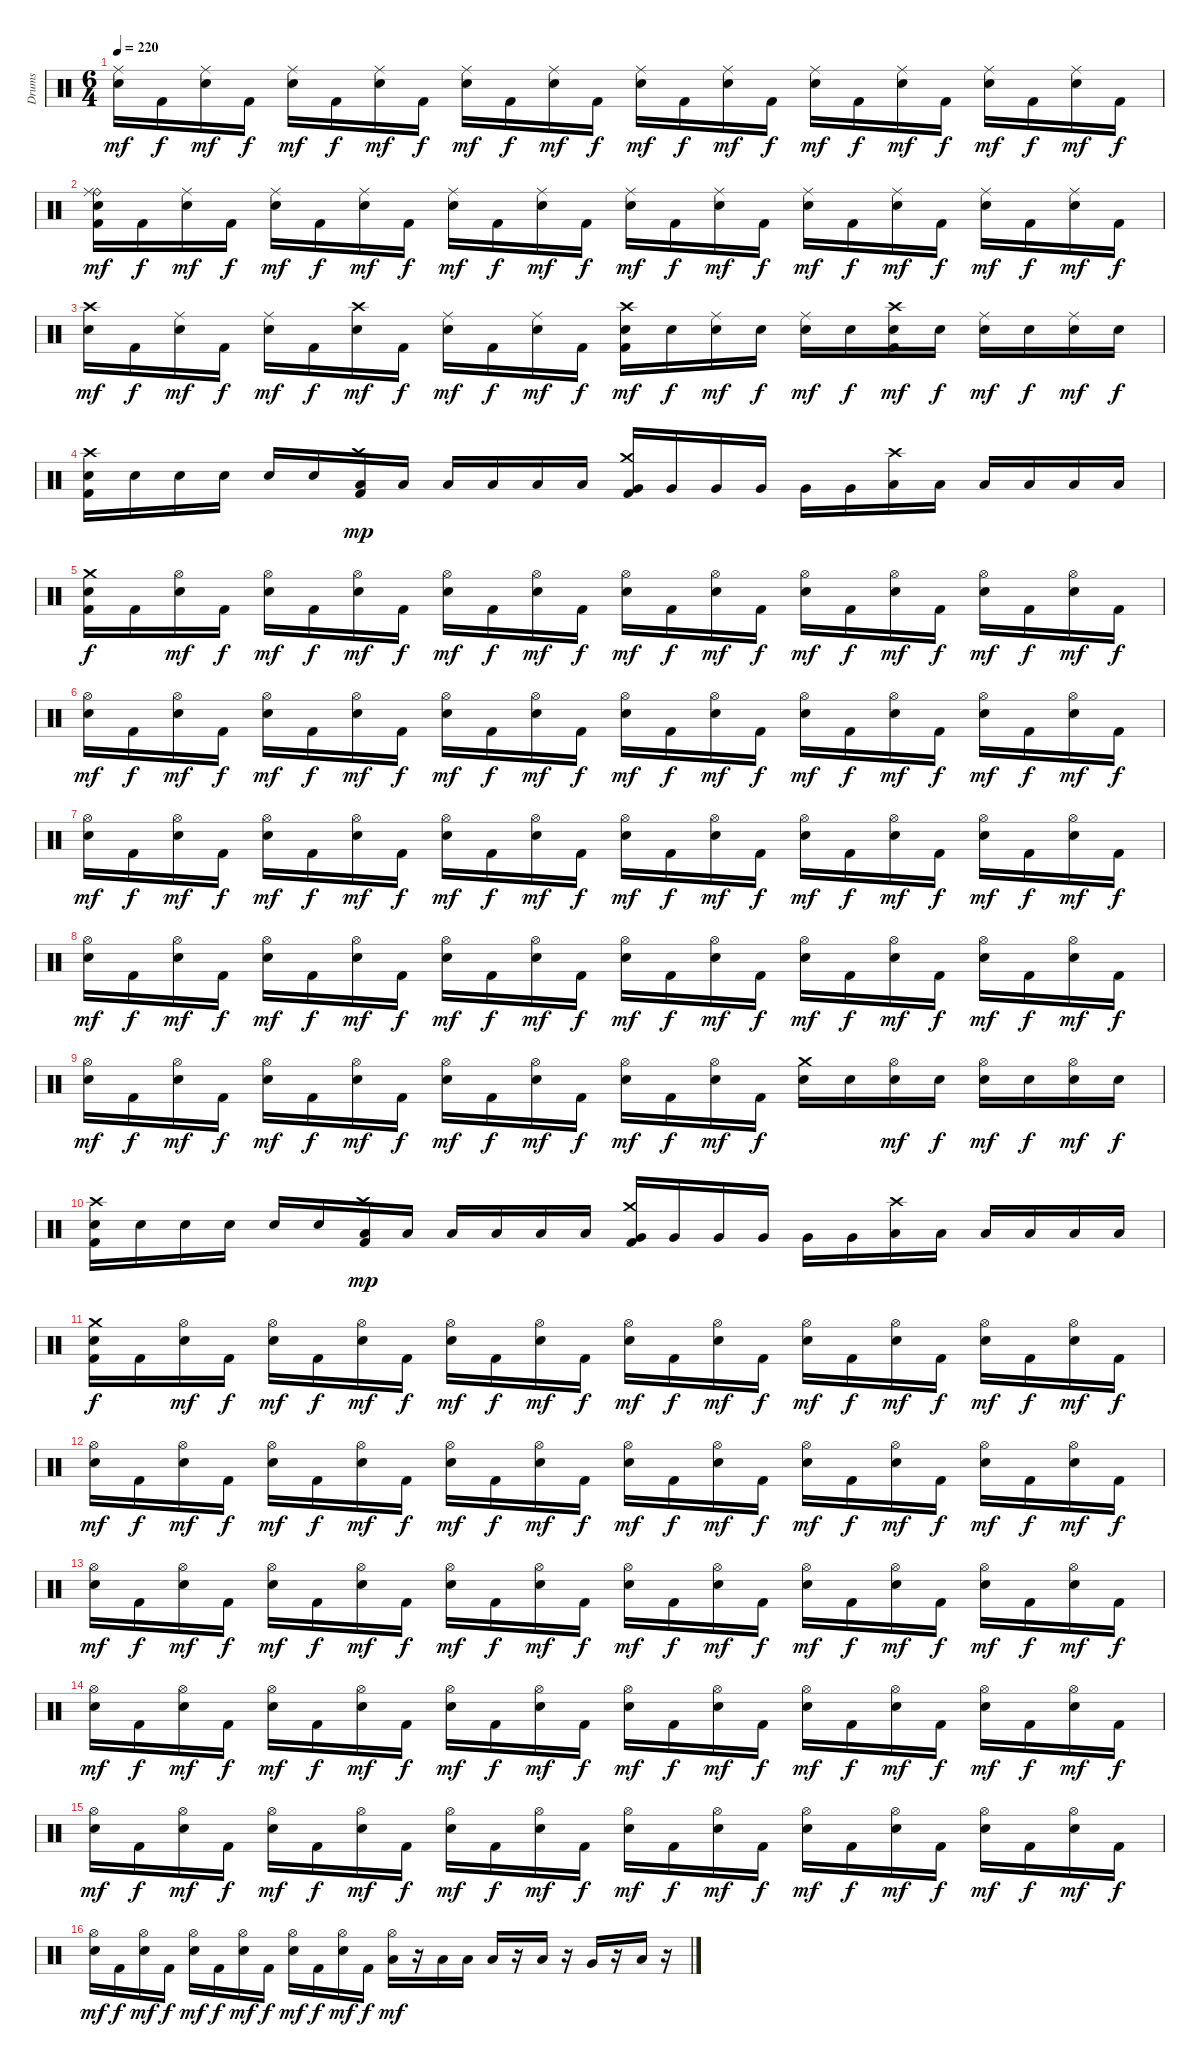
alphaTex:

\track ("Drums" "Drums") {instrument percussion}
\staff {score}
\articulation defaults
\ts (6 4)
\tempo 220
\clef neutral
\ks c
("Ride (middle)" "Electric Snare (hit)").16{dy mf} "Kick (hit) 2".16{dy f} ("Ride (middle)" "Electric Snare (hit)").16{dy mf} "Kick (hit) 2".16{dy f} ("Ride (middle)" "Electric Snare (hit)").16{dy mf} "Kick (hit) 2".16{dy f} ("Ride (middle)" "Electric Snare (hit)").16{dy mf} "Kick (hit) 2".16{dy f} ("Ride (middle)" "Electric Snare (hit)").16{dy mf} "Kick (hit) 2".16{dy f} ("Ride (middle)" "Electric Snare (hit)").16{dy mf} "Kick (hit) 2".16{dy f} ("Ride (middle)" "Electric Snare (hit)").16{dy mf} "Kick (hit) 2".16{dy f} ("Ride (middle)" "Electric Snare (hit)").16{dy mf} "Kick (hit) 2".16{dy f} ("Ride (middle)" "Electric Snare (hit)").16{dy mf} "Kick (hit) 2".16{dy f} ("Ride (middle)" "Electric Snare (hit)").16{dy mf} "Kick (hit) 2".16{dy f} ("Ride (middle)" "Electric Snare (hit)").16{dy mf} "Kick (hit) 2".16{dy f} ("Ride (middle)" "Electric Snare (hit)").16{dy mf} "Kick (hit) 2".16{dy f} |
("Ride (bell)" "Ride (middle)" "Electric Snare (hit)" "Kick (hit) 2").16{dy mf} "Kick (hit) 2".16{dy f} ("Ride (middle)" "Electric Snare (hit)").16{dy mf} "Kick (hit) 2".16{dy f} ("Ride (middle)" "Electric Snare (hit)").16{dy mf} "Kick (hit) 2".16{dy f} ("Ride (middle)" "Electric Snare (hit)").16{dy mf} "Kick (hit) 2".16{dy f} ("Ride (middle)" "Electric Snare (hit)").16{dy mf} "Kick (hit) 2".16{dy f} ("Ride (middle)" "Electric Snare (hit)").16{dy mf} "Kick (hit) 2".16{dy f} ("Ride (middle)" "Electric Snare (hit)").16{dy mf} "Kick (hit) 2".16{dy f} ("Ride (middle)" "Electric Snare (hit)").16{dy mf} "Kick (hit) 2".16{dy f} ("Ride (middle)" "Electric Snare (hit)").16{dy mf} "Kick (hit) 2".16{dy f} ("Ride (middle)" "Electric Snare (hit)").16{dy mf} "Kick (hit) 2".16{dy f} ("Ride (middle)" "Electric Snare (hit)").16{dy mf} "Kick (hit) 2".16{dy f} ("Ride (middle)" "Electric Snare (hit)").16{dy mf} "Kick (hit) 2".16{dy f} |
("Crash high (hit)" "Electric Snare (hit)").16{dy mf} "Kick (hit) 2".16{dy f} ("Ride (middle)" "Electric Snare (hit)").16{dy mf} "Kick (hit) 2".16{dy f} ("Ride (middle)" "Electric Snare (hit)").16{dy mf} "Kick (hit) 2".16{dy f} ("Crash high (hit)" "Electric Snare (hit)").16{dy mf} "Kick (hit) 2".16{dy f} ("Ride (middle)" "Electric Snare (hit)").16{dy mf} "Kick (hit) 2".16{dy f} ("Ride (middle)" "Electric Snare (hit)").16{dy mf} "Kick (hit) 2".16{dy f} ("Crash high (hit)" "Electric Snare (hit)" "Kick (hit) 2").16{dy mf} "Electric Snare (hit)".16{dy f} ("Ride (middle)" "Electric Snare (hit)").16{dy mf} "Electric Snare (hit)".16{dy f} ("Ride (middle)" "Electric Snare (hit)").16{dy mf} "Electric Snare (hit)".16{dy f} ("Crash high (hit)" "Electric Snare (hit)" "Kick (hit) 2").16{dy mf} "Electric Snare (hit)".16{dy f} ("Ride (middle)" "Electric Snare (hit)").16{dy mf} "Electric Snare (hit)".16{dy f} ("Ride (middle)" "Electric Snare (hit)").16{dy mf} "Electric Snare (hit)".16{dy f} |
("Crash high (hit)" "Electric Snare (hit)" "Kick (hit) 2").16 "Electric Snare (hit)".16 "Electric Snare (hit)".16 "Electric Snare (hit)".16 "Electric Snare (hit)".16 "Electric Snare (hit)".16 ("Crash high (hit)" "Low Tom (hit)" "Kick (hit) 2").16{dy mp} "Low Tom (hit)".16 "Low Tom (hit)".16 "Low Tom (hit)".16 "Low Tom (hit)".16 "Low Tom (hit)".16 ("Crash medium (hit)" "Very Low Tom (hit)" "Kick (hit) 2").16 "Very Low Tom (hit)".16 "Very Low Tom (hit)".16 "Very Low Tom (hit)".16 "Very Low Tom (hit)".16 "Very Low Tom (hit)".16 ("Crash high (hit)" "Low Floor Tom (hit)").16 "Low Floor Tom (hit)".16 "Low Floor Tom (hit)".16 "Low Floor Tom (hit)".16 "Low Floor Tom (hit)".16 "Low Floor Tom (hit)".16 |
("Crash medium (hit)" "Electric Snare (hit)" "Kick (hit) 2").16{dy f} "Kick (hit) 2".16 ("Hi-Hat (open)" "Electric Snare (hit)").16{dy mf} "Kick (hit) 2".16{dy f} ("Hi-Hat (open)" "Electric Snare (hit)").16{dy mf} "Kick (hit) 2".16{dy f} ("Hi-Hat (open)" "Electric Snare (hit)").16{dy mf} "Kick (hit) 2".16{dy f} ("Hi-Hat (open)" "Electric Snare (hit)").16{dy mf} "Kick (hit) 2".16{dy f} ("Hi-Hat (open)" "Electric Snare (hit)").16{dy mf} "Kick (hit) 2".16{dy f} ("Hi-Hat (open)" "Electric Snare (hit)").16{dy mf} "Kick (hit) 2".16{dy f} ("Hi-Hat (open)" "Electric Snare (hit)").16{dy mf} "Kick (hit) 2".16{dy f} ("Hi-Hat (open)" "Electric Snare (hit)").16{dy mf} "Kick (hit) 2".16{dy f} ("Hi-Hat (open)" "Electric Snare (hit)").16{dy mf} "Kick (hit) 2".16{dy f} ("Hi-Hat (open)" "Electric Snare (hit)").16{dy mf} "Kick (hit) 2".16{dy f} ("Hi-Hat (open)" "Electric Snare (hit)").16{dy mf} "Kick (hit) 2".16{dy f} |
("Hi-Hat (open)" "Electric Snare (hit)").16{dy mf} "Kick (hit) 2".16{dy f} ("Hi-Hat (open)" "Electric Snare (hit)").16{dy mf} "Kick (hit) 2".16{dy f} ("Hi-Hat (open)" "Electric Snare (hit)").16{dy mf} "Kick (hit) 2".16{dy f} ("Hi-Hat (open)" "Electric Snare (hit)").16{dy mf} "Kick (hit) 2".16{dy f} ("Hi-Hat (open)" "Electric Snare (hit)").16{dy mf} "Kick (hit) 2".16{dy f} ("Hi-Hat (open)" "Electric Snare (hit)").16{dy mf} "Kick (hit) 2".16{dy f} ("Hi-Hat (open)" "Electric Snare (hit)").16{dy mf} "Kick (hit) 2".16{dy f} ("Hi-Hat (open)" "Electric Snare (hit)").16{dy mf} "Kick (hit) 2".16{dy f} ("Hi-Hat (open)" "Electric Snare (hit)").16{dy mf} "Kick (hit) 2".16{dy f} ("Hi-Hat (open)" "Electric Snare (hit)").16{dy mf} "Kick (hit) 2".16{dy f} ("Hi-Hat (open)" "Electric Snare (hit)").16{dy mf} "Kick (hit) 2".16{dy f} ("Hi-Hat (open)" "Electric Snare (hit)").16{dy mf} "Kick (hit) 2".16{dy f} |
("Hi-Hat (open)" "Electric Snare (hit)").16{dy mf} "Kick (hit) 2".16{dy f} ("Hi-Hat (open)" "Electric Snare (hit)").16{dy mf} "Kick (hit) 2".16{dy f} ("Hi-Hat (open)" "Electric Snare (hit)").16{dy mf} "Kick (hit) 2".16{dy f} ("Hi-Hat (open)" "Electric Snare (hit)").16{dy mf} "Kick (hit) 2".16{dy f} ("Hi-Hat (open)" "Electric Snare (hit)").16{dy mf} "Kick (hit) 2".16{dy f} ("Hi-Hat (open)" "Electric Snare (hit)").16{dy mf} "Kick (hit) 2".16{dy f} ("Hi-Hat (open)" "Electric Snare (hit)").16{dy mf} "Kick (hit) 2".16{dy f} ("Hi-Hat (open)" "Electric Snare (hit)").16{dy mf} "Kick (hit) 2".16{dy f} ("Hi-Hat (open)" "Electric Snare (hit)").16{dy mf} "Kick (hit) 2".16{dy f} ("Hi-Hat (open)" "Electric Snare (hit)").16{dy mf} "Kick (hit) 2".16{dy f} ("Hi-Hat (open)" "Electric Snare (hit)").16{dy mf} "Kick (hit) 2".16{dy f} ("Hi-Hat (open)" "Electric Snare (hit)").16{dy mf} "Kick (hit) 2".16{dy f} |
("Hi-Hat (open)" "Electric Snare (hit)").16{dy mf} "Kick (hit) 2".16{dy f} ("Hi-Hat (open)" "Electric Snare (hit)").16{dy mf} "Kick (hit) 2".16{dy f} ("Hi-Hat (open)" "Electric Snare (hit)").16{dy mf} "Kick (hit) 2".16{dy f} ("Hi-Hat (open)" "Electric Snare (hit)").16{dy mf} "Kick (hit) 2".16{dy f} ("Hi-Hat (open)" "Electric Snare (hit)").16{dy mf} "Kick (hit) 2".16{dy f} ("Hi-Hat (open)" "Electric Snare (hit)").16{dy mf} "Kick (hit) 2".16{dy f} ("Hi-Hat (open)" "Electric Snare (hit)").16{dy mf} "Kick (hit) 2".16{dy f} ("Hi-Hat (open)" "Electric Snare (hit)").16{dy mf} "Kick (hit) 2".16{dy f} ("Hi-Hat (open)" "Electric Snare (hit)").16{dy mf} "Kick (hit) 2".16{dy f} ("Hi-Hat (open)" "Electric Snare (hit)").16{dy mf} "Kick (hit) 2".16{dy f} ("Hi-Hat (open)" "Electric Snare (hit)").16{dy mf} "Kick (hit) 2".16{dy f} ("Hi-Hat (open)" "Electric Snare (hit)").16{dy mf} "Kick (hit) 2".16{dy f} |
("Hi-Hat (open)" "Electric Snare (hit)").16{dy mf} "Kick (hit) 2".16{dy f} ("Hi-Hat (open)" "Electric Snare (hit)").16{dy mf} "Kick (hit) 2".16{dy f} ("Hi-Hat (open)" "Electric Snare (hit)").16{dy mf} "Kick (hit) 2".16{dy f} ("Hi-Hat (open)" "Electric Snare (hit)").16{dy mf} "Kick (hit) 2".16{dy f} ("Hi-Hat (open)" "Electric Snare (hit)").16{dy mf} "Kick (hit) 2".16{dy f} ("Hi-Hat (open)" "Electric Snare (hit)").16{dy mf} "Kick (hit) 2".16{dy f} ("Hi-Hat (open)" "Electric Snare (hit)").16{dy mf} "Kick (hit) 2".16{dy f} ("Hi-Hat (open)" "Electric Snare (hit)").16{dy mf} "Kick (hit) 2".16{dy f} ("Crash medium (hit)" "Electric Snare (hit)").16 "Electric Snare (hit)".16 ("Hi-Hat (open)" "Electric Snare (hit)").16{dy mf} "Electric Snare (hit)".16{dy f} ("Hi-Hat (open)" "Electric Snare (hit)").16{dy mf} "Electric Snare (hit)".16{dy f} ("Hi-Hat (open)" "Electric Snare (hit)").16{dy mf} "Electric Snare (hit)".16{dy f} |
("Crash high (hit)" "Electric Snare (hit)" "Kick (hit) 2").16 "Electric Snare (hit)".16 "Electric Snare (hit)".16 "Electric Snare (hit)".16 "Electric Snare (hit)".16 "Electric Snare (hit)".16 ("Crash high (hit)" "Low Tom (hit)" "Kick (hit) 2").16{dy mp} "Low Tom (hit)".16 "Low Tom (hit)".16 "Low Tom (hit)".16 "Low Tom (hit)".16 "Low Tom (hit)".16 ("Crash medium (hit)" "Very Low Tom (hit)" "Kick (hit) 2").16 "Very Low Tom (hit)".16 "Very Low Tom (hit)".16 "Very Low Tom (hit)".16 "Very Low Tom (hit)".16 "Very Low Tom (hit)".16 ("Crash high (hit)" "Low Floor Tom (hit)").16 "Low Floor Tom (hit)".16 "Low Floor Tom (hit)".16 "Low Floor Tom (hit)".16 "Low Floor Tom (hit)".16 "Low Floor Tom (hit)".16 |
("Crash medium (hit)" "Electric Snare (hit)" "Kick (hit) 2").16{dy f} "Kick (hit) 2".16 ("Hi-Hat (open)" "Electric Snare (hit)").16{dy mf} "Kick (hit) 2".16{dy f} ("Hi-Hat (open)" "Electric Snare (hit)").16{dy mf} "Kick (hit) 2".16{dy f} ("Hi-Hat (open)" "Electric Snare (hit)").16{dy mf} "Kick (hit) 2".16{dy f} ("Hi-Hat (open)" "Electric Snare (hit)").16{dy mf} "Kick (hit) 2".16{dy f} ("Hi-Hat (open)" "Electric Snare (hit)").16{dy mf} "Kick (hit) 2".16{dy f} ("Hi-Hat (open)" "Electric Snare (hit)").16{dy mf} "Kick (hit) 2".16{dy f} ("Hi-Hat (open)" "Electric Snare (hit)").16{dy mf} "Kick (hit) 2".16{dy f} ("Hi-Hat (open)" "Electric Snare (hit)").16{dy mf} "Kick (hit) 2".16{dy f} ("Hi-Hat (open)" "Electric Snare (hit)").16{dy mf} "Kick (hit) 2".16{dy f} ("Hi-Hat (open)" "Electric Snare (hit)").16{dy mf} "Kick (hit) 2".16{dy f} ("Hi-Hat (open)" "Electric Snare (hit)").16{dy mf} "Kick (hit) 2".16{dy f} |
("Hi-Hat (open)" "Electric Snare (hit)").16{dy mf} "Kick (hit) 2".16{dy f} ("Hi-Hat (open)" "Electric Snare (hit)").16{dy mf} "Kick (hit) 2".16{dy f} ("Hi-Hat (open)" "Electric Snare (hit)").16{dy mf} "Kick (hit) 2".16{dy f} ("Hi-Hat (open)" "Electric Snare (hit)").16{dy mf} "Kick (hit) 2".16{dy f} ("Hi-Hat (open)" "Electric Snare (hit)").16{dy mf} "Kick (hit) 2".16{dy f} ("Hi-Hat (open)" "Electric Snare (hit)").16{dy mf} "Kick (hit) 2".16{dy f} ("Hi-Hat (open)" "Electric Snare (hit)").16{dy mf} "Kick (hit) 2".16{dy f} ("Hi-Hat (open)" "Electric Snare (hit)").16{dy mf} "Kick (hit) 2".16{dy f} ("Hi-Hat (open)" "Electric Snare (hit)").16{dy mf} "Kick (hit) 2".16{dy f} ("Hi-Hat (open)" "Electric Snare (hit)").16{dy mf} "Kick (hit) 2".16{dy f} ("Hi-Hat (open)" "Electric Snare (hit)").16{dy mf} "Kick (hit) 2".16{dy f} ("Hi-Hat (open)" "Electric Snare (hit)").16{dy mf} "Kick (hit) 2".16{dy f} |
("Hi-Hat (open)" "Electric Snare (hit)").16{dy mf} "Kick (hit) 2".16{dy f} ("Hi-Hat (open)" "Electric Snare (hit)").16{dy mf} "Kick (hit) 2".16{dy f} ("Hi-Hat (open)" "Electric Snare (hit)").16{dy mf} "Kick (hit) 2".16{dy f} ("Hi-Hat (open)" "Electric Snare (hit)").16{dy mf} "Kick (hit) 2".16{dy f} ("Hi-Hat (open)" "Electric Snare (hit)").16{dy mf} "Kick (hit) 2".16{dy f} ("Hi-Hat (open)" "Electric Snare (hit)").16{dy mf} "Kick (hit) 2".16{dy f} ("Hi-Hat (open)" "Electric Snare (hit)").16{dy mf} "Kick (hit) 2".16{dy f} ("Hi-Hat (open)" "Electric Snare (hit)").16{dy mf} "Kick (hit) 2".16{dy f} ("Hi-Hat (open)" "Electric Snare (hit)").16{dy mf} "Kick (hit) 2".16{dy f} ("Hi-Hat (open)" "Electric Snare (hit)").16{dy mf} "Kick (hit) 2".16{dy f} ("Hi-Hat (open)" "Electric Snare (hit)").16{dy mf} "Kick (hit) 2".16{dy f} ("Hi-Hat (open)" "Electric Snare (hit)").16{dy mf} "Kick (hit) 2".16{dy f} |
("Hi-Hat (open)" "Electric Snare (hit)").16{dy mf} "Kick (hit) 2".16{dy f} ("Hi-Hat (open)" "Electric Snare (hit)").16{dy mf} "Kick (hit) 2".16{dy f} ("Hi-Hat (open)" "Electric Snare (hit)").16{dy mf} "Kick (hit) 2".16{dy f} ("Hi-Hat (open)" "Electric Snare (hit)").16{dy mf} "Kick (hit) 2".16{dy f} ("Hi-Hat (open)" "Electric Snare (hit)").16{dy mf} "Kick (hit) 2".16{dy f} ("Hi-Hat (open)" "Electric Snare (hit)").16{dy mf} "Kick (hit) 2".16{dy f} ("Hi-Hat (open)" "Electric Snare (hit)").16{dy mf} "Kick (hit) 2".16{dy f} ("Hi-Hat (open)" "Electric Snare (hit)").16{dy mf} "Kick (hit) 2".16{dy f} ("Hi-Hat (open)" "Electric Snare (hit)").16{dy mf} "Kick (hit) 2".16{dy f} ("Hi-Hat (open)" "Electric Snare (hit)").16{dy mf} "Kick (hit) 2".16{dy f} ("Hi-Hat (open)" "Electric Snare (hit)").16{dy mf} "Kick (hit) 2".16{dy f} ("Hi-Hat (open)" "Electric Snare (hit)").16{dy mf} "Kick (hit) 2".16{dy f} |
("Hi-Hat (open)" "Electric Snare (hit)").16{dy mf} "Kick (hit) 2".16{dy f} ("Hi-Hat (open)" "Electric Snare (hit)").16{dy mf} "Kick (hit) 2".16{dy f} ("Hi-Hat (open)" "Electric Snare (hit)").16{dy mf} "Kick (hit) 2".16{dy f} ("Hi-Hat (open)" "Electric Snare (hit)").16{dy mf} "Kick (hit) 2".16{dy f} ("Hi-Hat (open)" "Electric Snare (hit)").16{dy mf} "Kick (hit) 2".16{dy f} ("Hi-Hat (open)" "Electric Snare (hit)").16{dy mf} "Kick (hit) 2".16{dy f} ("Hi-Hat (open)" "Electric Snare (hit)").16{dy mf} "Kick (hit) 2".16{dy f} ("Hi-Hat (open)" "Electric Snare (hit)").16{dy mf} "Kick (hit) 2".16{dy f} ("Hi-Hat (open)" "Electric Snare (hit)").16{dy mf} "Kick (hit) 2".16{dy f} ("Hi-Hat (open)" "Electric Snare (hit)").16{dy mf} "Kick (hit) 2".16{dy f} ("Hi-Hat (open)" "Electric Snare (hit)").16{dy mf} "Kick (hit) 2".16{dy f} ("Hi-Hat (open)" "Electric Snare (hit)").16{dy mf} "Kick (hit) 2".16{dy f} |
("Hi-Hat (open)" "Electric Snare (hit)").16{dy mf} "Kick (hit) 2".16{dy f} ("Hi-Hat (open)" "Electric Snare (hit)").16{dy mf} "Kick (hit) 2".16{dy f} ("Hi-Hat (open)" "Electric Snare (hit)").16{dy mf} "Kick (hit) 2".16{dy f} ("Hi-Hat (open)" "Electric Snare (hit)").16{dy mf} "Kick (hit) 2".16{dy f} ("Hi-Hat (open)" "Electric Snare (hit)").16{dy mf} "Kick (hit) 2".16{dy f} ("Hi-Hat (open)" "Electric Snare (hit)").16{dy mf} "Kick (hit) 2".16{dy f} ("Hi-Hat (open)" "Low Tom (hit)").16{dy mf} r.16 "Low Tom (hit)".16 "Low Tom (hit)".16 "Low Tom (hit)".16 r.16 "Low Tom (hit)".16 r.16 "Very Low Tom (hit)".16 r.16 "Low Floor Tom (hit)".16 r.16
